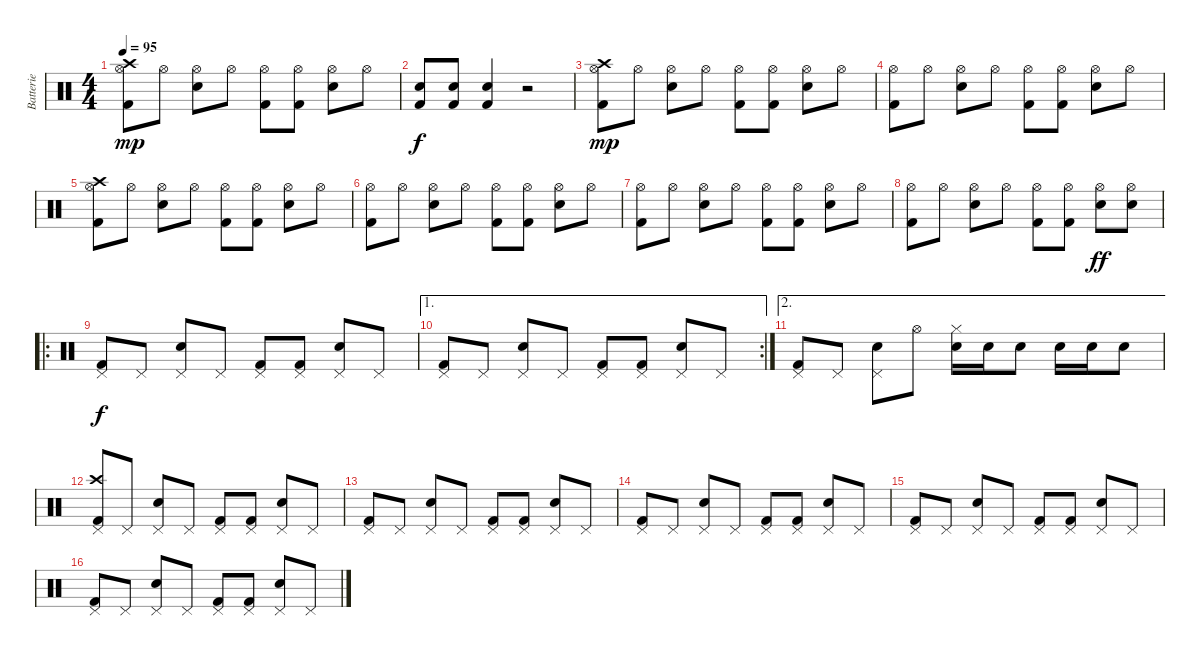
\track ("Batterie" "Batterie") {instrument percussion}
\staff {score}
\articulation defaults
\ts (4 4)
\tempo 95
\clef neutral
\ks c
("Hi-Hat (open)" "Kick (hit) 2" "Crash high (hit)").8{dy mp} "Hi-Hat (open)".8 ("Hi-Hat (open)" "Electric Snare (hit)").8 "Hi-Hat (open)".8 ("Hi-Hat (open)" "Kick (hit) 2").8 ("Hi-Hat (open)" "Kick (hit) 2").8 ("Hi-Hat (open)" "Electric Snare (hit)").8 "Hi-Hat (open)".8 |
("Kick (hit) 2" "Electric Snare (hit)").8{dy f} ("Kick (hit) 2" "Electric Snare (hit)").8 ("Kick (hit) 2" "Electric Snare (hit)").4 r.2 |
("Hi-Hat (open)" "Kick (hit) 2" "Crash high (hit)").8{dy mp} "Hi-Hat (open)".8 ("Hi-Hat (open)" "Electric Snare (hit)").8 "Hi-Hat (open)".8 ("Hi-Hat (open)" "Kick (hit) 2").8 ("Hi-Hat (open)" "Kick (hit) 2").8 ("Hi-Hat (open)" "Electric Snare (hit)").8 "Hi-Hat (open)".8 |
("Hi-Hat (open)" "Kick (hit) 2").8 "Hi-Hat (open)".8 ("Hi-Hat (open)" "Electric Snare (hit)").8 "Hi-Hat (open)".8 ("Hi-Hat (open)" "Kick (hit) 2").8 ("Hi-Hat (open)" "Kick (hit) 2").8 ("Hi-Hat (open)" "Electric Snare (hit)").8 "Hi-Hat (open)".8 |
("Hi-Hat (open)" "Kick (hit) 2" "Crash high (hit)").8 "Hi-Hat (open)".8 ("Hi-Hat (open)" "Electric Snare (hit)").8 "Hi-Hat (open)".8 ("Hi-Hat (open)" "Kick (hit) 2").8 ("Hi-Hat (open)" "Kick (hit) 2").8 ("Hi-Hat (open)" "Electric Snare (hit)").8 "Hi-Hat (open)".8 |
("Hi-Hat (open)" "Kick (hit) 2").8 "Hi-Hat (open)".8 ("Hi-Hat (open)" "Electric Snare (hit)").8 "Hi-Hat (open)".8 ("Hi-Hat (open)" "Kick (hit) 2").8 ("Hi-Hat (open)" "Kick (hit) 2").8 ("Hi-Hat (open)" "Electric Snare (hit)").8 "Hi-Hat (open)".8 |
("Hi-Hat (open)" "Kick (hit) 2").8 "Hi-Hat (open)".8 ("Hi-Hat (open)" "Electric Snare (hit)").8 "Hi-Hat (open)".8 ("Hi-Hat (open)" "Kick (hit) 2").8 ("Hi-Hat (open)" "Kick (hit) 2").8 ("Hi-Hat (open)" "Electric Snare (hit)").8 "Hi-Hat (open)".8 |
("Hi-Hat (open)" "Kick (hit) 2").8 "Hi-Hat (open)".8 ("Hi-Hat (open)" "Electric Snare (hit)").8 "Hi-Hat (open)".8 ("Hi-Hat (open)" "Kick (hit) 2").8 ("Hi-Hat (open)" "Kick (hit) 2").8 ("Hi-Hat (open)" "Electric Snare (hit)").8{dy ff} ("Hi-Hat (open)" "Electric Snare (hit)").8 |
\ro
("Pedal Hi-Hat (hit)" "Kick (hit) 2").8{dy f} "Pedal Hi-Hat (hit)".8 ("Pedal Hi-Hat (hit)" "Electric Snare (hit)").8 "Pedal Hi-Hat (hit)".8 ("Pedal Hi-Hat (hit)" "Kick (hit) 2").8 ("Pedal Hi-Hat (hit)" "Kick (hit) 2").8 ("Pedal Hi-Hat (hit)" "Electric Snare (hit)").8 "Pedal Hi-Hat (hit)".8 |
\ae 1
\rc 2
("Pedal Hi-Hat (hit)" "Kick (hit) 2").8 "Pedal Hi-Hat (hit)".8 ("Pedal Hi-Hat (hit)" "Electric Snare (hit)").8 "Pedal Hi-Hat (hit)".8 ("Pedal Hi-Hat (hit)" "Kick (hit) 2").8 ("Pedal Hi-Hat (hit)" "Kick (hit) 2").8 ("Pedal Hi-Hat (hit)" "Electric Snare (hit)").8 "Pedal Hi-Hat (hit)".8 |
\ae 2
("Pedal Hi-Hat (hit)" "Kick (hit) 2").8 "Pedal Hi-Hat (hit)".8 ("Pedal Hi-Hat (hit)" "Electric Snare (hit)").8 "Hi-Hat (open)".8 ("Hi-Hat (closed)" "Electric Snare (hit)").16 "Electric Snare (hit)".16 "Electric Snare (hit)".8 "Electric Snare (hit)".16 "Electric Snare (hit)".16 "Electric Snare (hit)".8 |
("Pedal Hi-Hat (hit)" "Kick (hit) 2" "Crash high (hit)").8 "Pedal Hi-Hat (hit)".8 ("Pedal Hi-Hat (hit)" "Electric Snare (hit)").8 "Pedal Hi-Hat (hit)".8 ("Pedal Hi-Hat (hit)" "Kick (hit) 2").8 ("Pedal Hi-Hat (hit)" "Kick (hit) 2").8 ("Pedal Hi-Hat (hit)" "Electric Snare (hit)").8 "Pedal Hi-Hat (hit)".8 |
("Pedal Hi-Hat (hit)" "Kick (hit) 2").8 "Pedal Hi-Hat (hit)".8 ("Pedal Hi-Hat (hit)" "Electric Snare (hit)").8 "Pedal Hi-Hat (hit)".8 ("Pedal Hi-Hat (hit)" "Kick (hit) 2").8 ("Pedal Hi-Hat (hit)" "Kick (hit) 2").8 ("Pedal Hi-Hat (hit)" "Electric Snare (hit)").8 "Pedal Hi-Hat (hit)".8 |
("Pedal Hi-Hat (hit)" "Kick (hit) 2").8 "Pedal Hi-Hat (hit)".8 ("Pedal Hi-Hat (hit)" "Electric Snare (hit)").8 "Pedal Hi-Hat (hit)".8 ("Pedal Hi-Hat (hit)" "Kick (hit) 2").8 ("Pedal Hi-Hat (hit)" "Kick (hit) 2").8 ("Pedal Hi-Hat (hit)" "Electric Snare (hit)").8 "Pedal Hi-Hat (hit)".8 |
("Pedal Hi-Hat (hit)" "Kick (hit) 2").8 "Pedal Hi-Hat (hit)".8 ("Pedal Hi-Hat (hit)" "Electric Snare (hit)").8 "Pedal Hi-Hat (hit)".8 ("Pedal Hi-Hat (hit)" "Kick (hit) 2").8 ("Pedal Hi-Hat (hit)" "Kick (hit) 2").8 ("Pedal Hi-Hat (hit)" "Electric Snare (hit)").8 "Pedal Hi-Hat (hit)".8 |
("Pedal Hi-Hat (hit)" "Kick (hit) 2").8 "Pedal Hi-Hat (hit)".8 ("Pedal Hi-Hat (hit)" "Electric Snare (hit)").8 "Pedal Hi-Hat (hit)".8 ("Pedal Hi-Hat (hit)" "Kick (hit) 2").8 ("Pedal Hi-Hat (hit)" "Kick (hit) 2").8 ("Pedal Hi-Hat (hit)" "Electric Snare (hit)").8 "Pedal Hi-Hat (hit)".8
